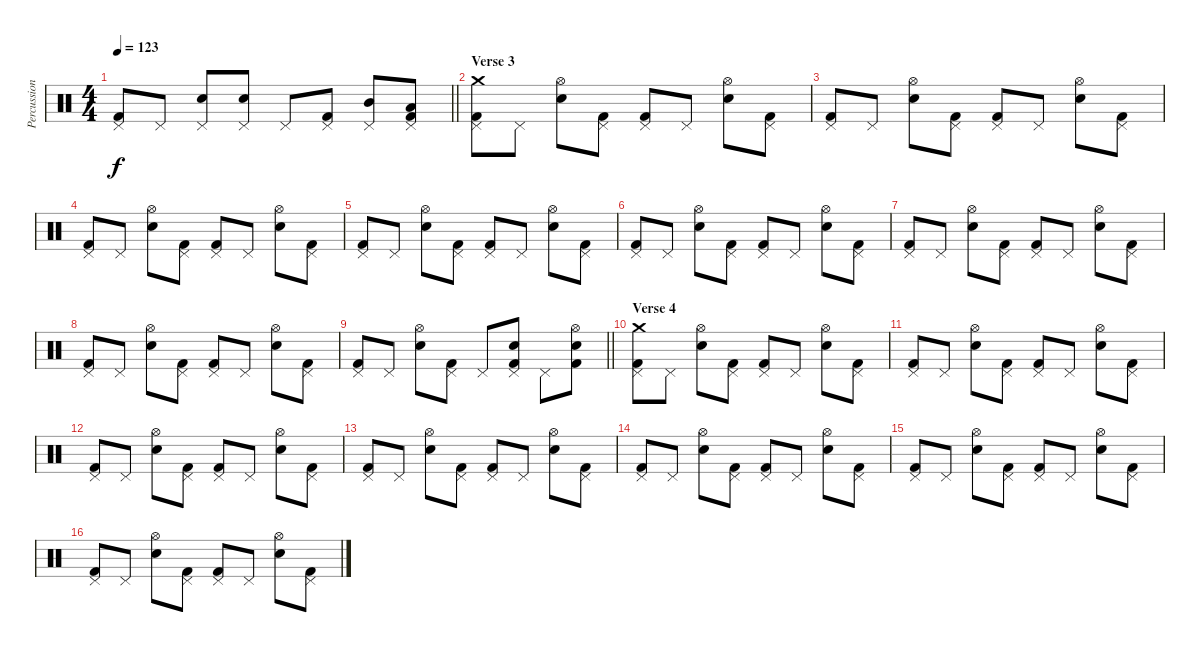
\track ("Percussion 1" "Percussion") {instrument percussion}
\staff {score}
\articulation defaults
\ts (4 4)
\tempo 123
\clef neutral
\barLineRight lightlight
\ks c
("Pedal Hi-Hat (hit)" "Kick (hit) 2").8{dy f} "Pedal Hi-Hat (hit)".8 ("Pedal Hi-Hat (hit)" "Electric Snare (hit)").8 ("Pedal Hi-Hat (hit)" "Electric Snare (hit)").8 "Pedal Hi-Hat (hit)".8 ("Pedal Hi-Hat (hit)" "Kick (hit) 2").8 ("Pedal Hi-Hat (hit)" "Mid Tom (hit)").8 ("Pedal Hi-Hat (hit)" "Low Tom (hit)" "Kick (hit) 2").8 |
\section ("" "Verse 3")
("Pedal Hi-Hat (hit)" "Crash medium (hit)" "Kick (hit) 2").8 "Pedal Hi-Hat (hit)".8 ("Hi-Hat (open)" "Electric Snare (hit)").8 ("Pedal Hi-Hat (hit)" "Kick (hit) 2").8 ("Pedal Hi-Hat (hit)" "Kick (hit) 2").8 "Pedal Hi-Hat (hit)".8 ("Hi-Hat (open)" "Electric Snare (hit)").8 ("Pedal Hi-Hat (hit)" "Kick (hit) 2").8 |
("Pedal Hi-Hat (hit)" "Kick (hit) 2").8 "Pedal Hi-Hat (hit)".8 ("Hi-Hat (open)" "Electric Snare (hit)").8 ("Pedal Hi-Hat (hit)" "Kick (hit) 2").8 ("Pedal Hi-Hat (hit)" "Kick (hit) 2").8 "Pedal Hi-Hat (hit)".8 ("Hi-Hat (open)" "Electric Snare (hit)").8 ("Pedal Hi-Hat (hit)" "Kick (hit) 2").8 |
("Pedal Hi-Hat (hit)" "Kick (hit) 2").8 "Pedal Hi-Hat (hit)".8 ("Hi-Hat (open)" "Electric Snare (hit)").8 ("Pedal Hi-Hat (hit)" "Kick (hit) 2").8 ("Pedal Hi-Hat (hit)" "Kick (hit) 2").8 "Pedal Hi-Hat (hit)".8 ("Hi-Hat (open)" "Electric Snare (hit)").8 ("Pedal Hi-Hat (hit)" "Kick (hit) 2").8 |
("Pedal Hi-Hat (hit)" "Kick (hit) 2").8 "Pedal Hi-Hat (hit)".8 ("Hi-Hat (open)" "Electric Snare (hit)").8 ("Pedal Hi-Hat (hit)" "Kick (hit) 2").8 ("Pedal Hi-Hat (hit)" "Kick (hit) 2").8 "Pedal Hi-Hat (hit)".8 ("Hi-Hat (open)" "Electric Snare (hit)").8 ("Pedal Hi-Hat (hit)" "Kick (hit) 2").8 |
("Pedal Hi-Hat (hit)" "Kick (hit) 2").8 "Pedal Hi-Hat (hit)".8 ("Hi-Hat (open)" "Electric Snare (hit)").8 ("Pedal Hi-Hat (hit)" "Kick (hit) 2").8 ("Pedal Hi-Hat (hit)" "Kick (hit) 2").8 "Pedal Hi-Hat (hit)".8 ("Hi-Hat (open)" "Electric Snare (hit)").8 ("Pedal Hi-Hat (hit)" "Kick (hit) 2").8 |
("Pedal Hi-Hat (hit)" "Kick (hit) 2").8 "Pedal Hi-Hat (hit)".8 ("Hi-Hat (open)" "Electric Snare (hit)").8 ("Pedal Hi-Hat (hit)" "Kick (hit) 2").8 ("Pedal Hi-Hat (hit)" "Kick (hit) 2").8 "Pedal Hi-Hat (hit)".8 ("Hi-Hat (open)" "Electric Snare (hit)").8 ("Pedal Hi-Hat (hit)" "Kick (hit) 2").8 |
("Pedal Hi-Hat (hit)" "Kick (hit) 2").8 "Pedal Hi-Hat (hit)".8 ("Hi-Hat (open)" "Electric Snare (hit)").8 ("Pedal Hi-Hat (hit)" "Kick (hit) 2").8 ("Pedal Hi-Hat (hit)" "Kick (hit) 2").8 "Pedal Hi-Hat (hit)".8 ("Hi-Hat (open)" "Electric Snare (hit)").8 ("Pedal Hi-Hat (hit)" "Kick (hit) 2").8 |
\barLineRight lightlight
("Pedal Hi-Hat (hit)" "Kick (hit) 2").8 "Pedal Hi-Hat (hit)".8 ("Hi-Hat (open)" "Electric Snare (hit)").8 ("Pedal Hi-Hat (hit)" "Kick (hit) 2").8 "Pedal Hi-Hat (hit)".8 ("Pedal Hi-Hat (hit)" "Electric Snare (hit)" "Kick (hit) 2").8 "Pedal Hi-Hat (hit)".8 ("Hi-Hat (open)" "Electric Snare (hit)" "Kick (hit) 2").8 |
\section ("" "Verse 4")
("Pedal Hi-Hat (hit)" "Crash medium (hit)" "Kick (hit) 2").8 "Pedal Hi-Hat (hit)".8 ("Hi-Hat (open)" "Electric Snare (hit)").8 ("Pedal Hi-Hat (hit)" "Kick (hit) 2").8 ("Pedal Hi-Hat (hit)" "Kick (hit) 2").8 "Pedal Hi-Hat (hit)".8 ("Hi-Hat (open)" "Electric Snare (hit)").8 ("Pedal Hi-Hat (hit)" "Kick (hit) 2").8 |
("Pedal Hi-Hat (hit)" "Kick (hit) 2").8 "Pedal Hi-Hat (hit)".8 ("Hi-Hat (open)" "Electric Snare (hit)").8 ("Pedal Hi-Hat (hit)" "Kick (hit) 2").8 ("Pedal Hi-Hat (hit)" "Kick (hit) 2").8 "Pedal Hi-Hat (hit)".8 ("Hi-Hat (open)" "Electric Snare (hit)").8 ("Pedal Hi-Hat (hit)" "Kick (hit) 2").8 |
("Pedal Hi-Hat (hit)" "Kick (hit) 2").8 "Pedal Hi-Hat (hit)".8 ("Hi-Hat (open)" "Electric Snare (hit)").8 ("Pedal Hi-Hat (hit)" "Kick (hit) 2").8 ("Pedal Hi-Hat (hit)" "Kick (hit) 2").8 "Pedal Hi-Hat (hit)".8 ("Hi-Hat (open)" "Electric Snare (hit)").8 ("Pedal Hi-Hat (hit)" "Kick (hit) 2").8 |
("Pedal Hi-Hat (hit)" "Kick (hit) 2").8 "Pedal Hi-Hat (hit)".8 ("Hi-Hat (open)" "Electric Snare (hit)").8 ("Pedal Hi-Hat (hit)" "Kick (hit) 2").8 ("Pedal Hi-Hat (hit)" "Kick (hit) 2").8 "Pedal Hi-Hat (hit)".8 ("Hi-Hat (open)" "Electric Snare (hit)").8 ("Pedal Hi-Hat (hit)" "Kick (hit) 2").8 |
("Pedal Hi-Hat (hit)" "Kick (hit) 2").8 "Pedal Hi-Hat (hit)".8 ("Hi-Hat (open)" "Electric Snare (hit)").8 ("Pedal Hi-Hat (hit)" "Kick (hit) 2").8 ("Pedal Hi-Hat (hit)" "Kick (hit) 2").8 "Pedal Hi-Hat (hit)".8 ("Hi-Hat (open)" "Electric Snare (hit)").8 ("Pedal Hi-Hat (hit)" "Kick (hit) 2").8 |
("Pedal Hi-Hat (hit)" "Kick (hit) 2").8 "Pedal Hi-Hat (hit)".8 ("Hi-Hat (open)" "Electric Snare (hit)").8 ("Pedal Hi-Hat (hit)" "Kick (hit) 2").8 ("Pedal Hi-Hat (hit)" "Kick (hit) 2").8 "Pedal Hi-Hat (hit)".8 ("Hi-Hat (open)" "Electric Snare (hit)").8 ("Pedal Hi-Hat (hit)" "Kick (hit) 2").8 |
("Pedal Hi-Hat (hit)" "Kick (hit) 2").8 "Pedal Hi-Hat (hit)".8 ("Hi-Hat (open)" "Electric Snare (hit)").8 ("Pedal Hi-Hat (hit)" "Kick (hit) 2").8 ("Pedal Hi-Hat (hit)" "Kick (hit) 2").8 "Pedal Hi-Hat (hit)".8 ("Hi-Hat (open)" "Electric Snare (hit)").8 ("Pedal Hi-Hat (hit)" "Kick (hit) 2").8
